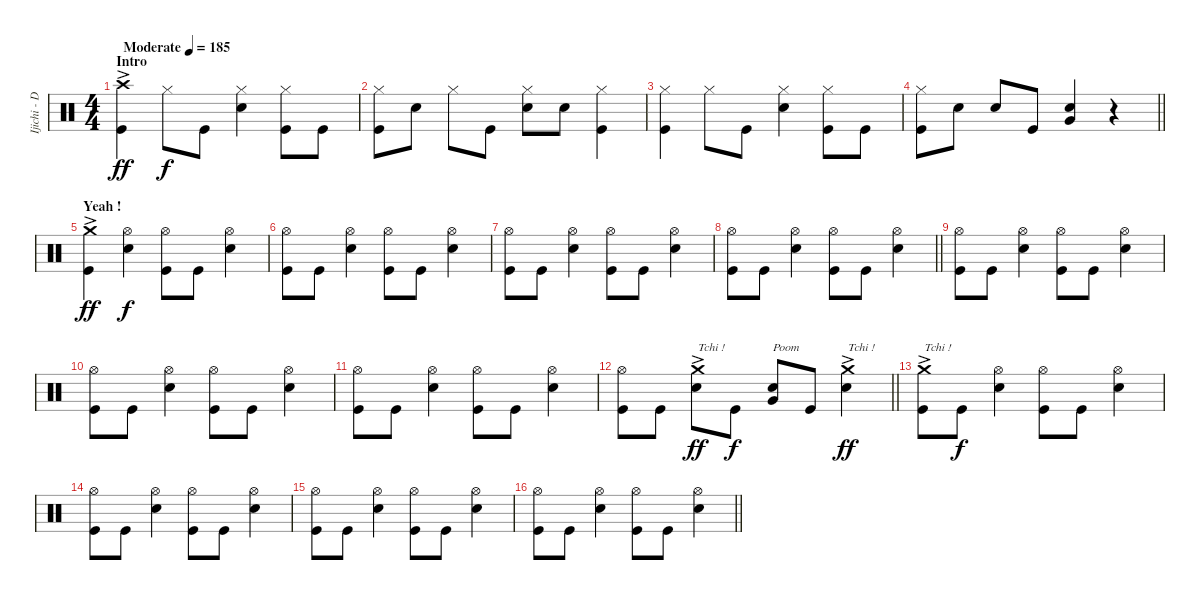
\track ("Ijichi - Drums" "Ijichi - D") {instrument percussion}
\staff
\articulation defaults
\ts (4 4)
\section ("" "Intro")
\tempo (185 "Moderate")
\clef neutral
\ks c
("Crash high (hit)"{ac} "Kick (hit)").4{dy ff} "Hi-Hat (closed)".8{dy f} "Kick (hit)".8 ("Hi-Hat (closed)" "Electric Snare (hit)").4 ("Hi-Hat (closed)" "Kick (hit)").8 "Kick (hit)".8 |
("Hi-Hat (closed)" "Kick (hit)").8 "Electric Snare (hit)".8 "Hi-Hat (closed)".8 "Kick (hit)".8 ("Hi-Hat (closed)" "Electric Snare (hit)").8 "Electric Snare (hit)".8 ("Hi-Hat (closed)" "Kick (hit)").4 |
("Hi-Hat (closed)" "Kick (hit)").4 "Hi-Hat (closed)".8 "Kick (hit)".8 ("Hi-Hat (closed)" "Electric Snare (hit)").4 ("Hi-Hat (closed)" "Kick (hit)").8 "Kick (hit)".8 |
\barLineRight lightlight
("Hi-Hat (closed)" "Kick (hit)").8 "Electric Snare (hit)".8 "Electric Snare (hit)".8 "Kick (hit)".8 ("Electric Snare (hit)" "Very Low Tom (hit)").4 r.4 |
\section ("" "Yeah !")
("Crash medium (hit)"{ac} "Kick (hit)").4{dy ff} ("Hi-Hat (open)" "Electric Snare (hit)").4{dy f} ("Hi-Hat (open)" "Kick (hit)").8 "Kick (hit)".8 ("Hi-Hat (open)" "Electric Snare (hit)").4 |
("Hi-Hat (open)" "Kick (hit)").8 "Kick (hit)".8 ("Hi-Hat (open)" "Electric Snare (hit)").4 ("Hi-Hat (open)" "Kick (hit)").8 "Kick (hit)".8 ("Hi-Hat (open)" "Electric Snare (hit)").4 |
("Hi-Hat (open)" "Kick (hit)").8 "Kick (hit)".8 ("Hi-Hat (open)" "Electric Snare (hit)").4 ("Hi-Hat (open)" "Kick (hit)").8 "Kick (hit)".8 ("Hi-Hat (open)" "Electric Snare (hit)").4 |
\barLineRight lightlight
("Hi-Hat (open)" "Kick (hit)").8 "Kick (hit)".8 ("Hi-Hat (open)" "Electric Snare (hit)").4 ("Hi-Hat (open)" "Kick (hit)").8 "Kick (hit)".8 ("Hi-Hat (open)" "Electric Snare (hit)").4 |
("Hi-Hat (open)" "Kick (hit)").8 "Kick (hit)".8 ("Hi-Hat (open)" "Electric Snare (hit)").4 ("Hi-Hat (open)" "Kick (hit)").8 "Kick (hit)".8 ("Hi-Hat (open)" "Electric Snare (hit)").4 |
("Hi-Hat (open)" "Kick (hit)").8 "Kick (hit)".8 ("Hi-Hat (open)" "Electric Snare (hit)").4 ("Hi-Hat (open)" "Kick (hit)").8 "Kick (hit)".8 ("Hi-Hat (open)" "Electric Snare (hit)").4 |
("Hi-Hat (open)" "Kick (hit)").8 "Kick (hit)".8 ("Hi-Hat (open)" "Electric Snare (hit)").4 ("Hi-Hat (open)" "Kick (hit)").8 "Kick (hit)".8 ("Hi-Hat (open)" "Electric Snare (hit)").4 |
\barLineRight lightlight
("Hi-Hat (open)" "Kick (hit)").8 "Kick (hit)".8 ("Crash medium (hit)"{ac} "Electric Snare (hit)").8{txt "Tchi !" dy ff} "Kick (hit)".8{dy f} ("Electric Snare (hit)" "Very Low Tom (hit)").8{txt "Poom"} "Kick (hit)".8 ("Crash medium (hit)"{ac} "Electric Snare (hit)").4{txt "Tchi !" dy ff} |
("Crash medium (hit)"{ac} "Kick (hit)").8{txt "Tchi !"} "Kick (hit)".8{dy f} ("Hi-Hat (open)" "Electric Snare (hit)").4 ("Hi-Hat (open)" "Kick (hit)").8 "Kick (hit)".8 ("Hi-Hat (open)" "Electric Snare (hit)").4 |
("Hi-Hat (open)" "Kick (hit)").8 "Kick (hit)".8 ("Hi-Hat (open)" "Electric Snare (hit)").4 ("Hi-Hat (open)" "Kick (hit)").8 "Kick (hit)".8 ("Hi-Hat (open)" "Electric Snare (hit)").4 |
("Hi-Hat (open)" "Kick (hit)").8 "Kick (hit)".8 ("Hi-Hat (open)" "Electric Snare (hit)").4 ("Hi-Hat (open)" "Kick (hit)").8 "Kick (hit)".8 ("Hi-Hat (open)" "Electric Snare (hit)").4 |
\barLineRight lightlight
("Hi-Hat (open)" "Kick (hit)").8 "Kick (hit)".8 ("Hi-Hat (open)" "Electric Snare (hit)").4 ("Hi-Hat (open)" "Kick (hit)").8 "Kick (hit)".8 ("Hi-Hat (open)" "Electric Snare (hit)").4
